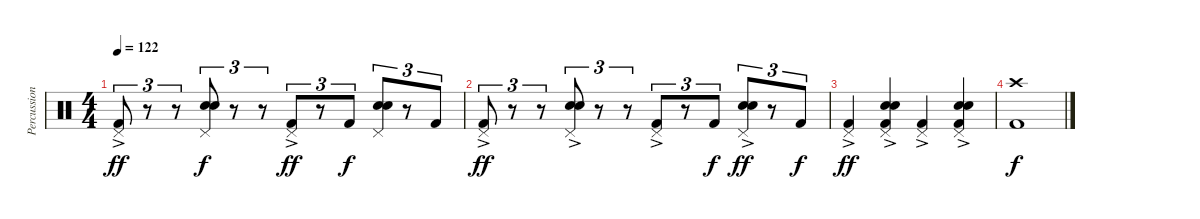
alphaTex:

\track ("Percussion" "Percussion") {instrument percussion}
\staff {score}
\articulation defaults
\ts (4 4)
\tempo 122
\clef neutral
\ks c
("Pedal Hi-Hat (hit)"{ac} "Kick (hit) 2").8{tu (3 2) dy ff} r.8{tu (3 2)} r.8{tu (3 2)} ("Pedal Hi-Hat (hit)" "Snare (hit) 2" "Electric Snare (hit)").8{tu (3 2) dy f} r.8{tu (3 2)} r.8{tu (3 2)} ("Pedal Hi-Hat (hit)"{ac} "Kick (hit) 2").8{tu (3 2) dy ff} r.8{tu (3 2)} "Kick (hit) 2".8{tu (3 2) dy f} ("Pedal Hi-Hat (hit)" "Snare (hit) 2" "Electric Snare (hit)").8{tu (3 2)} r.8{tu (3 2)} "Kick (hit) 2".8{tu (3 2)} |
("Pedal Hi-Hat (hit)"{ac} "Kick (hit) 2").8{tu (3 2) dy ff} r.8{tu (3 2)} r.8{tu (3 2)} ("Pedal Hi-Hat (hit)"{ac} "Snare (hit) 2" "Electric Snare (hit)").8{tu (3 2)} r.8{tu (3 2)} r.8{tu (3 2)} ("Pedal Hi-Hat (hit)"{ac} "Kick (hit) 2").8{tu (3 2)} r.8{tu (3 2)} "Kick (hit) 2".8{tu (3 2) dy f} ("Pedal Hi-Hat (hit)"{ac} "Snare (hit) 2" "Electric Snare (hit)").8{tu (3 2) dy ff} r.8{tu (3 2)} "Kick (hit) 2".8{tu (3 2) dy f} |
("Pedal Hi-Hat (hit)"{ac} "Kick (hit) 2").4{dy ff} ("Pedal Hi-Hat (hit)"{ac} "Snare (hit) 2" "Electric Snare (hit)" "Kick (hit) 2").4 ("Pedal Hi-Hat (hit)"{ac} "Kick (hit) 2").4 ("Pedal Hi-Hat (hit)"{ac} "Snare (hit) 2" "Electric Snare (hit)" "Kick (hit) 2").4 |
("Crash high (hit)" "Kick (hit) 2").1{dy f}
